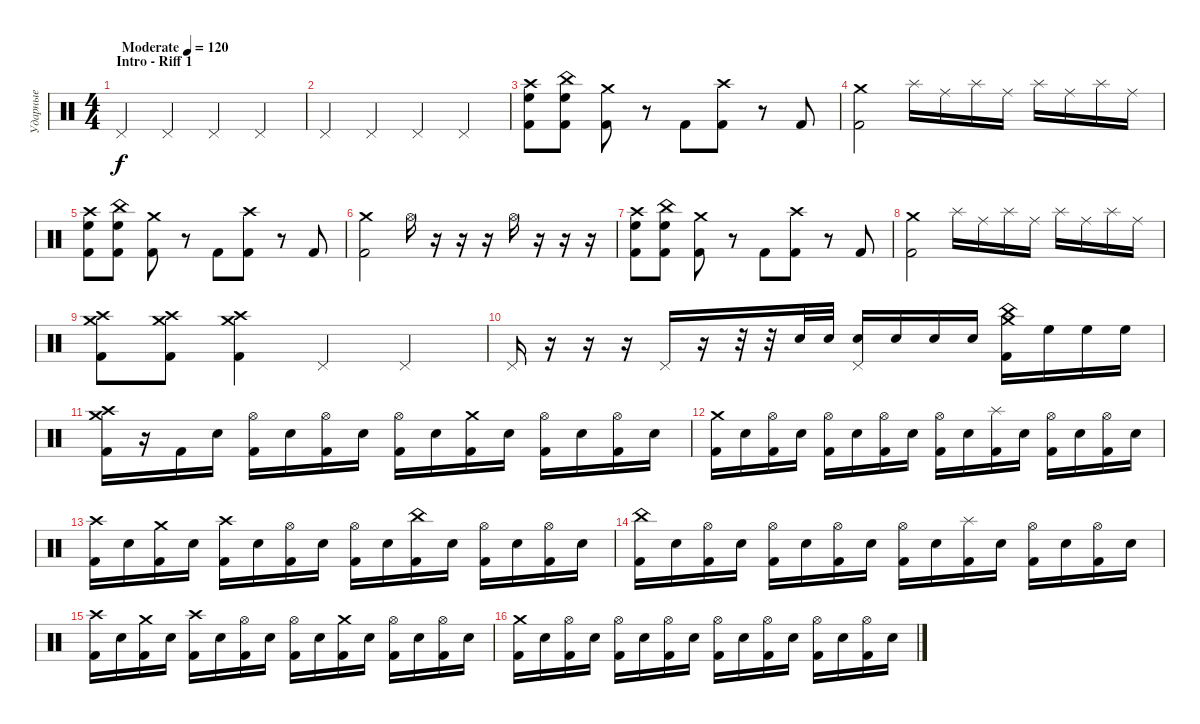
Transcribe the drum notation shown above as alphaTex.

\track ("Ударные" "Ударные") {instrument percussion}
\staff {score}
\articulation defaults
\ts (4 4)
\section ("" "Intro - Riff 1")
\tempo (120 "Moderate")
\clef neutral
\ks c "Pedal Hi-Hat (hit)".4{dy f} "Pedal Hi-Hat (hit)".4 "Pedal Hi-Hat (hit)".4 "Pedal Hi-Hat (hit)".4
|
"Pedal Hi-Hat (hit)".4 "Pedal Hi-Hat (hit)".4 "Pedal Hi-Hat (hit)".4 "Pedal Hi-Hat (hit)".4 |
("Crash high (hit)" "High Floor Tom (hit)" "Kick (hit) 2").8 ("China (hit)" "High Floor Tom (hit)" "Kick (hit) 2").8 ("Crash medium (hit)" "Kick (hit) 2").8 r.8 "Kick (hit) 2".8 ("Crash high (hit)" "Kick (hit) 2").8 r.8 "Kick (hit) 2".8 |
("Crash medium (hit)" "Kick (hit) 2").2 "Splash (hit)".16 "Ride (middle)".16 "Splash (hit)".16 "Ride (middle)".16 "Splash (hit)".16 "Ride (middle)".16 "Splash (hit)".16 "Ride (middle)".16 |
("Crash high (hit)" "High Floor Tom (hit)" "Kick (hit) 2").8 ("China (hit)" "High Floor Tom (hit)" "Kick (hit) 2").8 ("Crash medium (hit)" "Kick (hit) 2").8 r.8 "Kick (hit) 2".8 ("Crash high (hit)" "Kick (hit) 2").8 r.8 "Kick (hit) 2".8 |
("Crash medium (hit)" "Kick (hit) 2").2 "Hi-Hat (open)".16 r.16 r.16 r.16 "Hi-Hat (open)".16 r.16 r.16 r.16 |
("Crash high (hit)" "High Floor Tom (hit)" "Kick (hit) 2").8 ("China (hit)" "High Floor Tom (hit)" "Kick (hit) 2").8 ("Crash medium (hit)" "Kick (hit) 2").8 r.8 "Kick (hit) 2".8 ("Crash high (hit)" "Kick (hit) 2").8 r.8 "Kick (hit) 2".8 |
("Crash medium (hit)" "Kick (hit) 2").2 "Splash (hit)".16 "Ride (middle)".16 "Splash (hit)".16 "Ride (middle)".16 "Splash (hit)".16 "Ride (middle)".16 "Splash (hit)".16 "Ride (middle)".16 |
("Crash medium (hit)" "Crash high (hit)" "Kick (hit) 2").8 ("Crash medium (hit)" "Crash high (hit)" "Kick (hit) 2").8 ("Crash medium (hit)" "Crash high (hit)" "Kick (hit) 2").4 "Pedal Hi-Hat (hit)".4 "Pedal Hi-Hat (hit)".4 |
"Pedal Hi-Hat (hit)".16 r.16 r.16 r.16 "Pedal Hi-Hat (hit)".16 r.16 r.32 r.32 "Electric Snare (hit)".32 "Electric Snare (hit)".32 ("Pedal Hi-Hat (hit)" "Electric Snare (hit)").16 "Electric Snare (hit)".16 "Electric Snare (hit)".16 "Electric Snare (hit)".16 ("China (hit)" "Crash medium (hit)" "Kick (hit) 2").16 "High Floor Tom (hit)".16 "High Floor Tom (hit)".16 "High Floor Tom (hit)".16 |
("Crash high (hit)" "Crash medium (hit)" "Kick (hit) 2").16 r.16 "Kick (hit) 2".16 "Electric Snare (hit)".16 ("Hi-Hat (open)" "Kick (hit) 2").16 "Electric Snare (hit)".16 ("Hi-Hat (open)" "Kick (hit) 2").16 "Electric Snare (hit)".16 ("Hi-Hat (open)" "Kick (hit) 2").16 "Electric Snare (hit)".16 ("Crash medium (hit)" "Kick (hit) 2").16 "Electric Snare (hit)".16 ("Hi-Hat (open)" "Kick (hit) 2").16 "Electric Snare (hit)".16 ("Hi-Hat (open)" "Kick (hit) 2").16 "Electric Snare (hit)".16 |
("Crash medium (hit)" "Kick (hit) 2").16 "Electric Snare (hit)".16 ("Hi-Hat (open)" "Kick (hit) 2").16 "Electric Snare (hit)".16 ("Hi-Hat (open)" "Kick (hit) 2").16 "Electric Snare (hit)".16 ("Hi-Hat (open)" "Kick (hit) 2").16 "Electric Snare (hit)".16 ("Hi-Hat (open)" "Kick (hit) 2").16 "Electric Snare (hit)".16 ("Splash (hit)" "Kick (hit) 2").16 "Electric Snare (hit)".16 ("Hi-Hat (open)" "Kick (hit) 2").16 "Electric Snare (hit)".16 ("Hi-Hat (open)" "Kick (hit) 2").16 "Electric Snare (hit)".16 |
("Crash high (hit)" "Kick (hit) 2").16 "Electric Snare (hit)".16 ("Crash medium (hit)" "Kick (hit) 2").16 "Electric Snare (hit)".16 ("Crash high (hit)" "Kick (hit) 2").16 "Electric Snare (hit)".16 ("Hi-Hat (open)" "Kick (hit) 2").16 "Electric Snare (hit)".16 ("Hi-Hat (open)" "Kick (hit) 2").16 "Electric Snare (hit)".16 ("China (hit)" "Kick (hit) 2").16 "Electric Snare (hit)".16 ("Hi-Hat (open)" "Kick (hit) 2").16 "Electric Snare (hit)".16 ("Hi-Hat (open)" "Kick (hit) 2").16 "Electric Snare (hit)".16 |
("China (hit)" "Kick (hit) 2").16 "Electric Snare (hit)".16 ("Hi-Hat (open)" "Kick (hit) 2").16 "Electric Snare (hit)".16 ("Hi-Hat (open)" "Kick (hit) 2").16 "Electric Snare (hit)".16 ("Hi-Hat (open)" "Kick (hit) 2").16 "Electric Snare (hit)".16 ("Hi-Hat (open)" "Kick (hit) 2").16 "Electric Snare (hit)".16 ("Splash (hit)" "Kick (hit) 2").16 "Electric Snare (hit)".16 ("Hi-Hat (open)" "Kick (hit) 2").16 "Electric Snare (hit)".16 ("Hi-Hat (open)" "Kick (hit) 2").16 "Electric Snare (hit)".16 |
("Crash high (hit)" "Kick (hit) 2").16 "Electric Snare (hit)".16 ("Crash medium (hit)" "Kick (hit) 2").16 "Electric Snare (hit)".16 ("Crash high (hit)" "Kick (hit) 2").16 "Electric Snare (hit)".16 ("Hi-Hat (open)" "Kick (hit) 2").16 "Electric Snare (hit)".16 ("Hi-Hat (open)" "Kick (hit) 2").16 "Electric Snare (hit)".16 ("Crash medium (hit)" "Kick (hit) 2").16 "Electric Snare (hit)".16 ("Hi-Hat (open)" "Kick (hit) 2").16 "Electric Snare (hit)".16 ("Hi-Hat (open)" "Kick (hit) 2").16 "Electric Snare (hit)".16 |
("Crash medium (hit)" "Kick (hit) 2").16 "Electric Snare (hit)".16 ("Hi-Hat (open)" "Kick (hit) 2").16 "Electric Snare (hit)".16 ("Hi-Hat (open)" "Kick (hit) 2").16 "Electric Snare (hit)".16 ("Hi-Hat (open)" "Kick (hit) 2").16 "Electric Snare (hit)".16 ("Hi-Hat (open)" "Kick (hit) 2").16 "Electric Snare (hit)".16 ("Hi-Hat (open)" "Kick (hit) 2").16 "Electric Snare (hit)".16 ("Hi-Hat (open)" "Kick (hit) 2").16 "Electric Snare (hit)".16 ("Hi-Hat (open)" "Kick (hit) 2").16 "Electric Snare (hit)".16
